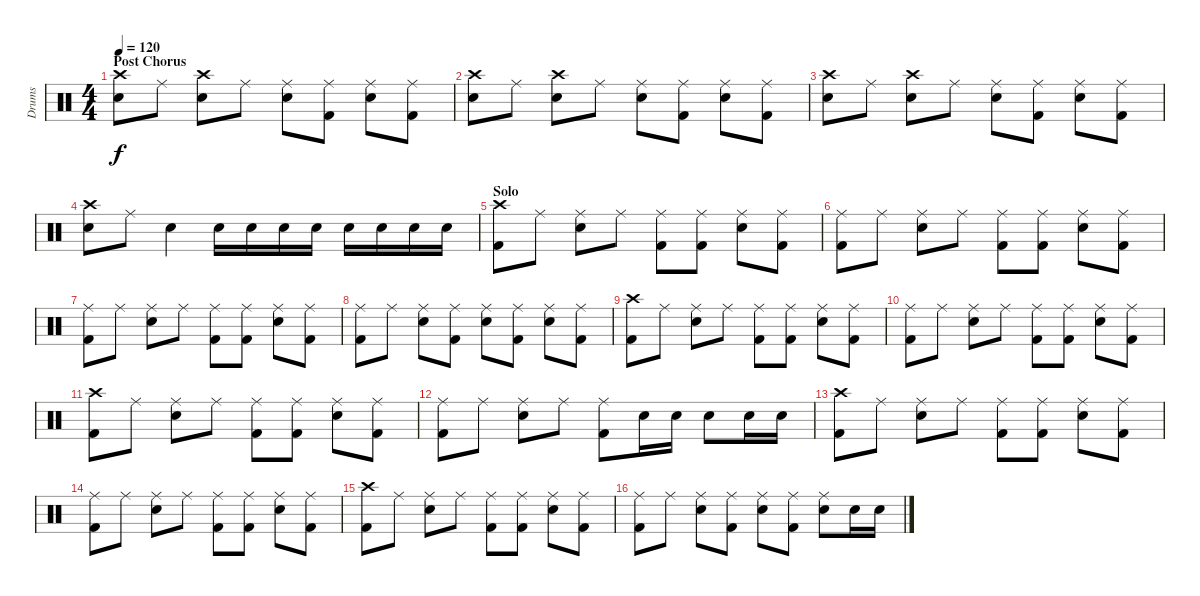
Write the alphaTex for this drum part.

\track ("Drums" "Drums") {instrument percussion}
\staff {score}
\articulation defaults
\ts (4 4)
\section ("" "Post Chorus")
\tempo 120
\clef neutral
\ks c
("Crash high (hit)" "Electric Snare (hit)").8{dy f} "Ride (middle)".8 ("Crash high (hit)" "Electric Snare (hit)").8 "Ride (middle)".8 ("Ride (middle)" "Electric Snare (hit)").8 ("Ride (middle)" "Kick (hit) 2").8 ("Ride (middle)" "Electric Snare (hit)").8 ("Ride (middle)" "Kick (hit) 2").8 |
("Crash high (hit)" "Electric Snare (hit)").8 "Ride (middle)".8 ("Crash high (hit)" "Electric Snare (hit)").8 "Ride (middle)".8 ("Ride (middle)" "Electric Snare (hit)").8 ("Ride (middle)" "Kick (hit) 2").8 ("Ride (middle)" "Electric Snare (hit)").8 ("Ride (middle)" "Kick (hit) 2").8 |
("Crash high (hit)" "Electric Snare (hit)").8 "Ride (middle)".8 ("Crash high (hit)" "Electric Snare (hit)").8 "Ride (middle)".8 ("Ride (middle)" "Electric Snare (hit)").8 ("Ride (middle)" "Kick (hit) 2").8 ("Ride (middle)" "Electric Snare (hit)").8 ("Ride (middle)" "Kick (hit) 2").8 |
("Crash high (hit)" "Electric Snare (hit)").8 "Ride (middle)".8 "Electric Snare (hit)".4 "Electric Snare (hit)".16 "Electric Snare (hit)".16 "Electric Snare (hit)".16 "Electric Snare (hit)".16 "Electric Snare (hit)".16 "Electric Snare (hit)".16 "Electric Snare (hit)".16 "Electric Snare (hit)".16 |
\section ("" "Solo")
("Crash high (hit)" "Kick (hit) 2").8 "Ride (middle)".8 ("Ride (middle)" "Electric Snare (hit)").8 "Ride (middle)".8 ("Ride (middle)" "Kick (hit) 2").8 ("Ride (middle)" "Kick (hit) 2").8 ("Ride (middle)" "Electric Snare (hit)").8 ("Ride (middle)" "Kick (hit) 2").8 |
("Ride (middle)" "Kick (hit) 2").8 "Ride (middle)".8 ("Ride (middle)" "Electric Snare (hit)").8 "Ride (middle)".8 ("Ride (middle)" "Kick (hit) 2").8 ("Ride (middle)" "Kick (hit) 2").8 ("Ride (middle)" "Electric Snare (hit)").8 ("Ride (middle)" "Kick (hit) 2").8 |
("Ride (middle)" "Kick (hit) 2").8 "Ride (middle)".8 ("Ride (middle)" "Electric Snare (hit)").8 "Ride (middle)".8 ("Ride (middle)" "Kick (hit) 2").8 ("Ride (middle)" "Kick (hit) 2").8 ("Ride (middle)" "Electric Snare (hit)").8 ("Ride (middle)" "Kick (hit) 2").8 |
("Ride (middle)" "Kick (hit) 2").8 "Ride (middle)".8 ("Ride (middle)" "Electric Snare (hit)").8 ("Ride (middle)" "Kick (hit) 2").8 ("Ride (middle)" "Electric Snare (hit)").8 ("Ride (middle)" "Kick (hit) 2").8 ("Ride (middle)" "Electric Snare (hit)").8 ("Ride (middle)" "Kick (hit) 2").8 |
("Crash high (hit)" "Kick (hit) 2").8 "Ride (middle)".8 ("Ride (middle)" "Electric Snare (hit)").8 "Ride (middle)".8 ("Ride (middle)" "Kick (hit) 2").8 ("Ride (middle)" "Kick (hit) 2").8 ("Ride (middle)" "Electric Snare (hit)").8 ("Ride (middle)" "Kick (hit) 2").8 |
("Ride (middle)" "Kick (hit) 2").8 "Ride (middle)".8 ("Ride (middle)" "Electric Snare (hit)").8 "Ride (middle)".8 ("Ride (middle)" "Kick (hit) 2").8 ("Ride (middle)" "Kick (hit) 2").8 ("Ride (middle)" "Electric Snare (hit)").8 ("Ride (middle)" "Kick (hit) 2").8 |
("Crash high (hit)" "Kick (hit) 2").8 "Ride (middle)".8 ("Ride (middle)" "Electric Snare (hit)").8 "Ride (middle)".8 ("Ride (middle)" "Kick (hit) 2").8 ("Ride (middle)" "Kick (hit) 2").8 ("Ride (middle)" "Electric Snare (hit)").8 ("Ride (middle)" "Kick (hit) 2").8 |
("Ride (middle)" "Kick (hit) 2").8 "Ride (middle)".8 ("Ride (middle)" "Electric Snare (hit)").8 "Ride (middle)".8 ("Ride (middle)" "Kick (hit) 2").8 "Electric Snare (hit)".16 "Electric Snare (hit)".16 "Electric Snare (hit)".8 "Electric Snare (hit)".16 "Electric Snare (hit)".16 |
("Crash high (hit)" "Kick (hit) 2").8 "Ride (middle)".8 ("Ride (middle)" "Electric Snare (hit)").8 "Ride (middle)".8 ("Ride (middle)" "Kick (hit) 2").8 ("Ride (middle)" "Kick (hit) 2").8 ("Ride (middle)" "Electric Snare (hit)").8 ("Ride (middle)" "Kick (hit) 2").8 |
("Ride (middle)" "Kick (hit) 2").8 "Ride (middle)".8 ("Ride (middle)" "Electric Snare (hit)").8 "Ride (middle)".8 ("Ride (middle)" "Kick (hit) 2").8 ("Ride (middle)" "Kick (hit) 2").8 ("Ride (middle)" "Electric Snare (hit)").8 ("Ride (middle)" "Kick (hit) 2").8 |
("Crash high (hit)" "Kick (hit) 2").8 "Ride (middle)".8 ("Ride (middle)" "Electric Snare (hit)").8 "Ride (middle)".8 ("Ride (middle)" "Kick (hit) 2").8 ("Ride (middle)" "Kick (hit) 2").8 ("Ride (middle)" "Electric Snare (hit)").8 ("Ride (middle)" "Kick (hit) 2").8 |
("Ride (middle)" "Kick (hit) 2").8 "Ride (middle)".8 ("Ride (middle)" "Electric Snare (hit)").8 ("Ride (middle)" "Kick (hit) 2").8 ("Ride (middle)" "Electric Snare (hit)").8 ("Ride (middle)" "Kick (hit) 2").8 ("Ride (middle)" "Electric Snare (hit)").8 "Electric Snare (hit)".16 "Electric Snare (hit)".16
